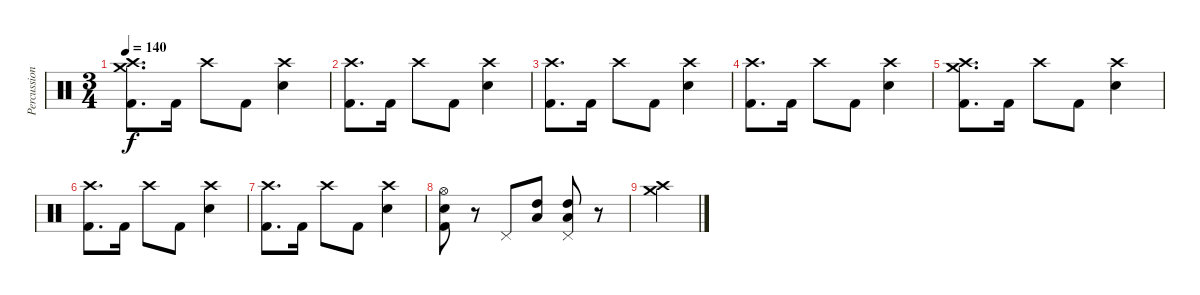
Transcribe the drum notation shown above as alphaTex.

\track ("Percussion" "Percussion") {instrument percussion}
\staff {score}
\articulation defaults
\ts (3 4)
\tempo 140
\clef neutral
\ks c
("Crash medium (hit)" "Crash high (hit)" "Kick (hit) 2").8{d dy f} "Kick (hit) 2".16 "Crash high (hit)".8 "Kick (hit) 2".8 ("Crash high (hit)" "Electric Snare (hit)").4 |
("Crash high (hit)" "Kick (hit) 2").8{d} "Kick (hit) 2".16 "Crash high (hit)".8 "Kick (hit) 2".8 ("Crash high (hit)" "Electric Snare (hit)").4 |
("Crash high (hit)" "Kick (hit) 2").8{d} "Kick (hit) 2".16 "Crash high (hit)".8 "Kick (hit) 2".8 ("Crash high (hit)" "Electric Snare (hit)").4 |
("Crash high (hit)" "Kick (hit) 2").8{d} "Kick (hit) 2".16 "Crash high (hit)".8 "Kick (hit) 2".8 ("Crash high (hit)" "Electric Snare (hit)").4 |
("Crash medium (hit)" "Crash high (hit)" "Kick (hit) 2").8{d} "Kick (hit) 2".16 "Crash high (hit)".8 "Kick (hit) 2".8 ("Crash high (hit)" "Electric Snare (hit)").4 |
("Crash high (hit)" "Kick (hit) 2").8{d} "Kick (hit) 2".16 "Crash high (hit)".8 "Kick (hit) 2".8 ("Crash high (hit)" "Electric Snare (hit)").4 |
("Crash high (hit)" "Kick (hit) 2").8{d} "Kick (hit) 2".16 "Crash high (hit)".8 "Kick (hit) 2".8 ("Crash high (hit)" "Electric Snare (hit)").4 |
("Hi-Hat (open)" "Electric Snare (hit)" "Kick (hit) 2").8 r.8 "Pedal Hi-Hat (hit)".8 ("High Tom (hit)" "Low Floor Tom (hit)").8 ("Pedal Hi-Hat (hit)" "High Tom (hit)" "Low Floor Tom (hit)").8 r.8 |
("Crash medium (hit)" "Crash high (hit)").4
